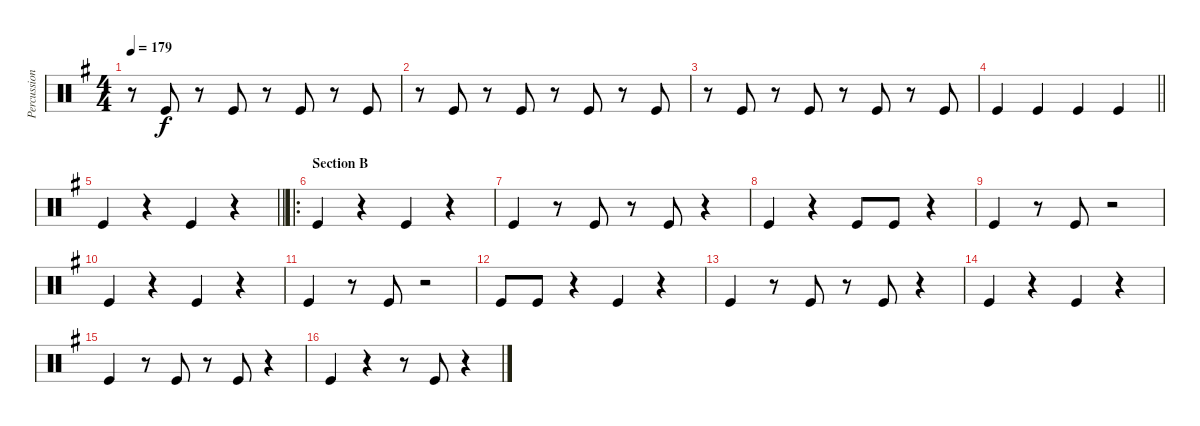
\track ("Percussion 02" "Percussion") {instrument percussion}
\staff {score}
\articulation defaults
\ts (4 4)
\tempo 179
\clef neutral
\ks g
r.8{dy f} "Kick (hit)".8 r.8 "Kick (hit)".8 r.8 "Kick (hit)".8 r.8 "Kick (hit)".8 |
r.8 "Kick (hit)".8 r.8 "Kick (hit)".8 r.8 "Kick (hit)".8 r.8 "Kick (hit)".8 |
r.8 "Kick (hit)".8 r.8 "Kick (hit)".8 r.8 "Kick (hit)".8 r.8 "Kick (hit)".8 |
\barLineRight lightlight "Kick (hit)".4 "Kick (hit)".4 "Kick (hit)".4 "Kick (hit)".4
|
\barLineRight lightlight "Kick (hit)".4
r.4 "Kick (hit)".4 r.4 |
\ro
\section ("" "Section B")
"Kick (hit)".4 r.4 "Kick (hit)".4 r.4 |
"Kick (hit)".4 r.8 "Kick (hit)".8 r.8 "Kick (hit)".8 r.4 |
"Kick (hit)".4 r.4 "Kick (hit)".8 "Kick (hit)".8 r.4 |
"Kick (hit)".4 r.8 "Kick (hit)".8 r.2 |
"Kick (hit)".4 r.4 "Kick (hit)".4 r.4 |
"Kick (hit)".4 r.8 "Kick (hit)".8 r.2 |
"Kick (hit)".8 "Kick (hit)".8 r.4 "Kick (hit)".4 r.4 |
"Kick (hit)".4 r.8 "Kick (hit)".8 r.8 "Kick (hit)".8 r.4 |
"Kick (hit)".4 r.4 "Kick (hit)".4 r.4 |
"Kick (hit)".4 r.8 "Kick (hit)".8 r.8 "Kick (hit)".8 r.4 |
"Kick (hit)".4 r.4 r.8 "Kick (hit)".8 r.4
